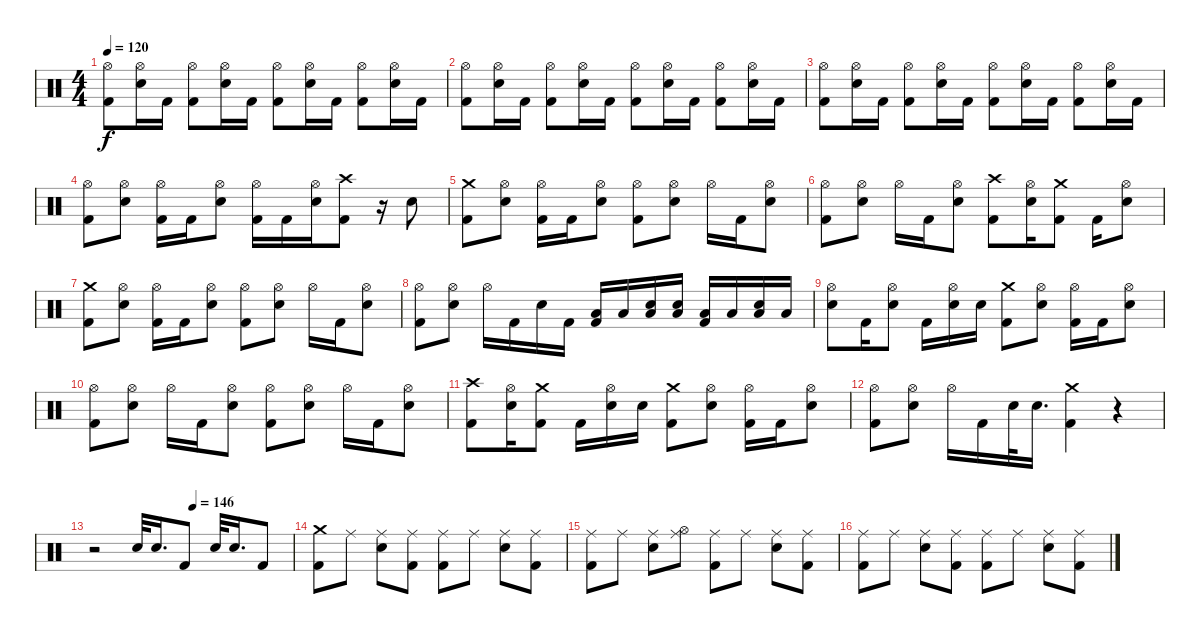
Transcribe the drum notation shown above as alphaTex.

\track "" {instrument percussion}
\staff {score}
\articulation defaults
\ts (4 4)
\tempo 120
\clef neutral
\ks c
("Hi-Hat (open)" "Kick (hit) 2").8{dy f} ("Hi-Hat (open)" "Snare (hit) 2").16 "Kick (hit) 2".16 ("Hi-Hat (open)" "Kick (hit) 2").8 ("Hi-Hat (open)" "Snare (hit) 2").16 "Kick (hit) 2".16 ("Kick (hit) 2" "Hi-Hat (open)").8 ("Hi-Hat (open)" "Snare (hit) 2").16 "Kick (hit) 2".16 ("Hi-Hat (open)" "Kick (hit) 2").8 ("Hi-Hat (open)" "Snare (hit) 2").16 "Kick (hit) 2".16 |
("Hi-Hat (open)" "Kick (hit) 2").8 ("Hi-Hat (open)" "Snare (hit) 2").16 "Kick (hit) 2".16 ("Hi-Hat (open)" "Kick (hit) 2").8 ("Hi-Hat (open)" "Snare (hit) 2").16 "Kick (hit) 2".16 ("Kick (hit) 2" "Hi-Hat (open)").8 ("Hi-Hat (open)" "Snare (hit) 2").16 "Kick (hit) 2".16 ("Kick (hit) 2" "Hi-Hat (open)").8 ("Hi-Hat (open)" "Snare (hit) 2").16 "Kick (hit) 2".16 |
("Kick (hit) 2" "Hi-Hat (open)").8 ("Hi-Hat (open)" "Snare (hit) 2").16 "Kick (hit) 2".16 ("Kick (hit) 2" "Hi-Hat (open)").8 ("Hi-Hat (open)" "Snare (hit) 2").16 "Kick (hit) 2".16 ("Kick (hit) 2" "Hi-Hat (open)").8 ("Hi-Hat (open)" "Snare (hit) 2").16 "Kick (hit) 2".16 ("Kick (hit) 2" "Hi-Hat (open)").8 ("Hi-Hat (open)" "Snare (hit) 2").16 "Kick (hit) 2".16 |
("Kick (hit) 2" "Hi-Hat (open)").8 ("Hi-Hat (open)" "Snare (hit) 2").8 ("Kick (hit) 2" "Hi-Hat (open)").16 "Kick (hit) 2".16 ("Hi-Hat (open)" "Snare (hit) 2").8 ("Kick (hit) 2" "Hi-Hat (open)").16 "Kick (hit) 2".16 ("Hi-Hat (open)" "Snare (hit) 2").16 ("Kick (hit) 2" "Crash high (hit)").8 r.16 "Snare (hit) 2".8 |
("Crash medium (hit)" "Kick (hit) 2").8 ("Snare (hit) 2" "Hi-Hat (open)").8 ("Hi-Hat (open)" "Kick (hit) 2").16 "Kick (hit) 2".16 ("Hi-Hat (open)" "Snare (hit) 2").8 ("Hi-Hat (open)" "Kick (hit) 2").8 ("Hi-Hat (open)" "Snare (hit) 2").8 "Hi-Hat (open)".16 "Kick (hit) 2".16 ("Hi-Hat (open)" "Snare (hit) 2").8 |
("Hi-Hat (open)" "Kick (hit) 2").8 ("Hi-Hat (open)" "Snare (hit) 2").8 "Hi-Hat (open)".16 "Kick (hit) 2".16 ("Hi-Hat (open)" "Snare (hit) 2").8 ("Kick (hit) 2" "Crash high (hit)").8 ("Snare (hit) 2" "Hi-Hat (open)").16 ("Crash medium (hit)" "Kick (hit) 2").8 "Kick (hit) 2".16 ("Snare (hit) 2" "Hi-Hat (open)").8 |
("Crash medium (hit)" "Kick (hit) 2").8 ("Snare (hit) 2" "Hi-Hat (open)").8 ("Hi-Hat (open)" "Kick (hit) 2").16 "Kick (hit) 2".16 ("Hi-Hat (open)" "Snare (hit) 2").8 ("Hi-Hat (open)" "Kick (hit) 2").8 ("Hi-Hat (open)" "Snare (hit) 2").8 "Hi-Hat (open)".16 "Kick (hit) 2".16 ("Hi-Hat (open)" "Snare (hit) 2").8 |
("Hi-Hat (open)" "Kick (hit) 2").8 ("Hi-Hat (open)" "Snare (hit) 2").8 "Hi-Hat (open)".16 "Kick (hit) 2".16 "Snare (hit) 2".16 "Kick (hit) 2".16 ("Kick (hit) 2" "Low Floor Tom (hit)").16 "Low Floor Tom (hit)".16 ("Snare (hit) 2" "Low Floor Tom (hit)").16 ("Low Floor Tom (hit)" "Snare (hit) 2").16 ("Kick (hit) 2" "Low Floor Tom (hit)").16 "Low Floor Tom (hit)".16 ("Snare (hit) 2" "Low Floor Tom (hit)").16 "Low Floor Tom (hit)".16 |
("Snare (hit) 2" "Hi-Hat (open)").8 "Kick (hit) 2".16 ("Snare (hit) 2" "Hi-Hat (open)").8 "Kick (hit) 2".16 ("Snare (hit) 2" "Hi-Hat (open)").16 "Snare (hit) 2".16 ("Crash medium (hit)" "Kick (hit) 2").8 ("Snare (hit) 2" "Hi-Hat (open)").8 ("Hi-Hat (open)" "Kick (hit) 2").16 "Kick (hit) 2".16 ("Hi-Hat (open)" "Snare (hit) 2").8 |
("Hi-Hat (open)" "Kick (hit) 2").8 ("Hi-Hat (open)" "Snare (hit) 2").8 "Hi-Hat (open)".16 "Kick (hit) 2".16 ("Hi-Hat (open)" "Snare (hit) 2").8 ("Hi-Hat (open)" "Kick (hit) 2").8 ("Hi-Hat (open)" "Snare (hit) 2").8 "Hi-Hat (open)".16 "Kick (hit) 2".16 ("Hi-Hat (open)" "Snare (hit) 2").8 |
("Kick (hit) 2" "Crash high (hit)").8 ("Snare (hit) 2" "Hi-Hat (open)").16 ("Crash medium (hit)" "Kick (hit) 2").8 "Kick (hit) 2".16 ("Snare (hit) 2" "Hi-Hat (open)").16 "Snare (hit) 2".16 ("Crash medium (hit)" "Kick (hit) 2").8 ("Snare (hit) 2" "Hi-Hat (open)").8 ("Hi-Hat (open)" "Kick (hit) 2").16 "Kick (hit) 2".16 ("Hi-Hat (open)" "Snare (hit) 2").8 |
("Hi-Hat (open)" "Kick (hit) 2").8 ("Hi-Hat (open)" "Snare (hit) 2").8 "Hi-Hat (open)".16 "Kick (hit) 2".16 "Snare (hit) 2".32 "Snare (hit) 2".16{d} ("Crash medium (hit)" "Kick (hit) 2").4 r.4 |
\tempo (146 0.5)
r.2 "Snare (hit) 2".32 "Snare (hit) 2".16{d} "Kick (hit) 2".8 "Snare (hit) 2".32 "Snare (hit) 2".16{d} "Kick (hit) 2".8 |
("Kick (hit) 2" "Crash medium (hit)").8 "Ride (middle)".8 ("Ride (middle)" "Snare (hit) 2").8 ("Ride (middle)" "Kick (hit) 2").8 ("Ride (middle)" "Kick (hit) 2").8 "Ride (middle)".8 ("Ride (middle)" "Snare (hit) 2").8 ("Ride (middle)" "Kick (hit) 2").8 |
("Ride (middle)" "Kick (hit) 2").8 "Ride (middle)".8 ("Ride (middle)" "Snare (hit) 2").8 ("Ride (middle)" "Hi-Hat (open)").8 ("Ride (middle)" "Kick (hit) 2").8 "Ride (middle)".8 ("Ride (middle)" "Snare (hit) 2").8 ("Ride (middle)" "Kick (hit) 2").8 |
("Kick (hit) 2" "Ride (middle)").8 "Ride (middle)".8 ("Ride (middle)" "Snare (hit) 2").8 ("Ride (middle)" "Kick (hit) 2").8 ("Ride (middle)" "Kick (hit) 2").8 "Ride (middle)".8 ("Ride (middle)" "Snare (hit) 2").8 ("Ride (middle)" "Kick (hit) 2").8
